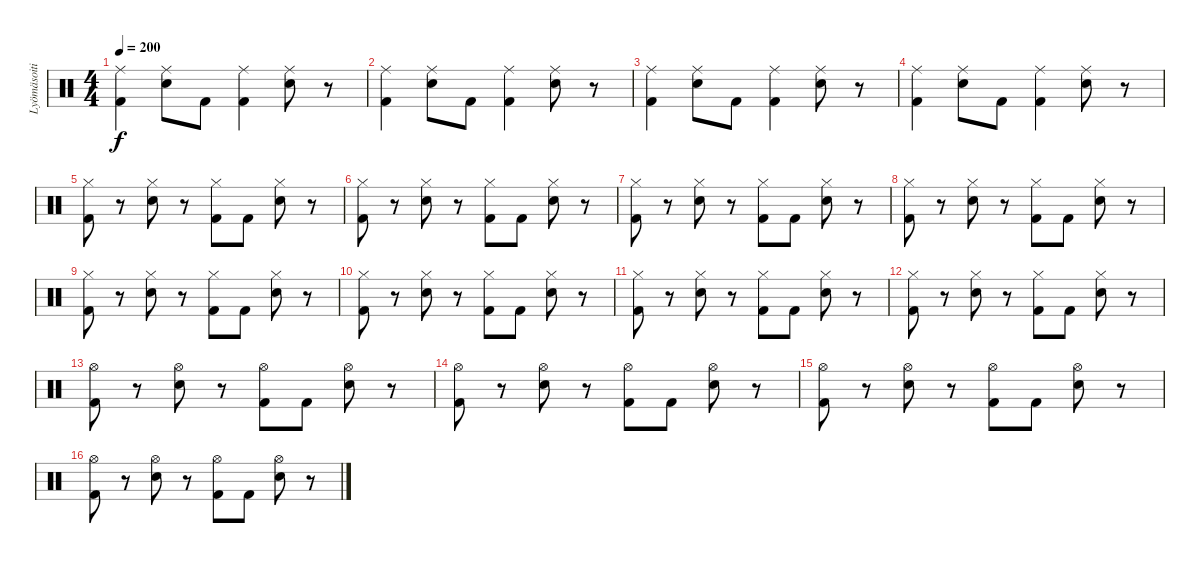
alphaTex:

\track ("Lyömäsoitin" "Lyömäsoiti") {instrument percussion}
\staff {score}
\articulation defaults
\ts (4 4)
\tempo 200
\clef neutral
\ks c
("Ride (middle)" "Kick (hit) 2").4{dy f} ("Ride (middle)" "Snare (hit) 2").8 "Kick (hit) 2".8 ("Ride (middle)" "Kick (hit) 2").4 ("Ride (middle)" "Snare (hit) 2").8 r.8 |
("Ride (middle)" "Kick (hit) 2").4 ("Ride (middle)" "Snare (hit) 2").8 "Kick (hit) 2".8 ("Ride (middle)" "Kick (hit) 2").4 ("Ride (middle)" "Snare (hit) 2").8 r.8 |
("Ride (middle)" "Kick (hit) 2").4 ("Ride (middle)" "Snare (hit) 2").8 "Kick (hit) 2".8 ("Ride (middle)" "Kick (hit) 2").4 ("Ride (middle)" "Snare (hit) 2").8 r.8 |
("Ride (middle)" "Kick (hit) 2").4 ("Ride (middle)" "Snare (hit) 2").8 "Kick (hit) 2".8 ("Ride (middle)" "Kick (hit) 2").4 ("Ride (middle)" "Snare (hit) 2").8 r.8 |
("Hi-Hat (closed)" "Kick (hit) 2").8 r.8 ("Hi-Hat (closed)" "Snare (hit) 2").8 r.8 ("Hi-Hat (closed)" "Kick (hit) 2").8 "Kick (hit) 2".8 ("Hi-Hat (closed)" "Snare (hit) 2").8 r.8 |
("Hi-Hat (closed)" "Kick (hit) 2").8 r.8 ("Hi-Hat (closed)" "Snare (hit) 2").8 r.8 ("Hi-Hat (closed)" "Kick (hit) 2").8 "Kick (hit) 2".8 ("Hi-Hat (closed)" "Snare (hit) 2").8 r.8 |
("Hi-Hat (closed)" "Kick (hit) 2").8 r.8 ("Hi-Hat (closed)" "Snare (hit) 2").8 r.8 ("Hi-Hat (closed)" "Kick (hit) 2").8 "Kick (hit) 2".8 ("Hi-Hat (closed)" "Snare (hit) 2").8 r.8 |
("Hi-Hat (closed)" "Kick (hit) 2").8 r.8 ("Hi-Hat (closed)" "Snare (hit) 2").8 r.8 ("Hi-Hat (closed)" "Kick (hit) 2").8 "Kick (hit) 2".8 ("Hi-Hat (closed)" "Snare (hit) 2").8 r.8 |
("Hi-Hat (closed)" "Kick (hit) 2").8 r.8 ("Hi-Hat (closed)" "Snare (hit) 2").8 r.8 ("Hi-Hat (closed)" "Kick (hit) 2").8 "Kick (hit) 2".8 ("Hi-Hat (closed)" "Snare (hit) 2").8 r.8 |
("Hi-Hat (closed)" "Kick (hit) 2").8 r.8 ("Hi-Hat (closed)" "Snare (hit) 2").8 r.8 ("Hi-Hat (closed)" "Kick (hit) 2").8 "Kick (hit) 2".8 ("Hi-Hat (closed)" "Snare (hit) 2").8 r.8 |
("Hi-Hat (closed)" "Kick (hit) 2").8 r.8 ("Hi-Hat (closed)" "Snare (hit) 2").8 r.8 ("Hi-Hat (closed)" "Kick (hit) 2").8 "Kick (hit) 2".8 ("Hi-Hat (closed)" "Snare (hit) 2").8 r.8 |
("Hi-Hat (closed)" "Kick (hit) 2").8 r.8 ("Hi-Hat (closed)" "Snare (hit) 2").8 r.8 ("Hi-Hat (closed)" "Kick (hit) 2").8 "Kick (hit) 2".8 ("Hi-Hat (closed)" "Snare (hit) 2").8 r.8 |
("Hi-Hat (open)" "Kick (hit) 2").8 r.8 ("Hi-Hat (open)" "Snare (hit) 2").8 r.8 ("Hi-Hat (open)" "Kick (hit) 2").8 "Kick (hit) 2".8 ("Hi-Hat (open)" "Snare (hit) 2").8 r.8 |
("Hi-Hat (open)" "Kick (hit) 2").8 r.8 ("Hi-Hat (open)" "Snare (hit) 2").8 r.8 ("Hi-Hat (open)" "Kick (hit) 2").8 "Kick (hit) 2".8 ("Hi-Hat (open)" "Snare (hit) 2").8 r.8 |
("Hi-Hat (open)" "Kick (hit) 2").8 r.8 ("Hi-Hat (open)" "Snare (hit) 2").8 r.8 ("Hi-Hat (open)" "Kick (hit) 2").8 "Kick (hit) 2".8 ("Hi-Hat (open)" "Snare (hit) 2").8 r.8 |
("Hi-Hat (open)" "Kick (hit) 2").8 r.8 ("Hi-Hat (open)" "Snare (hit) 2").8 r.8 ("Hi-Hat (open)" "Kick (hit) 2").8 "Kick (hit) 2".8 ("Hi-Hat (open)" "Snare (hit) 2").8 r.8
